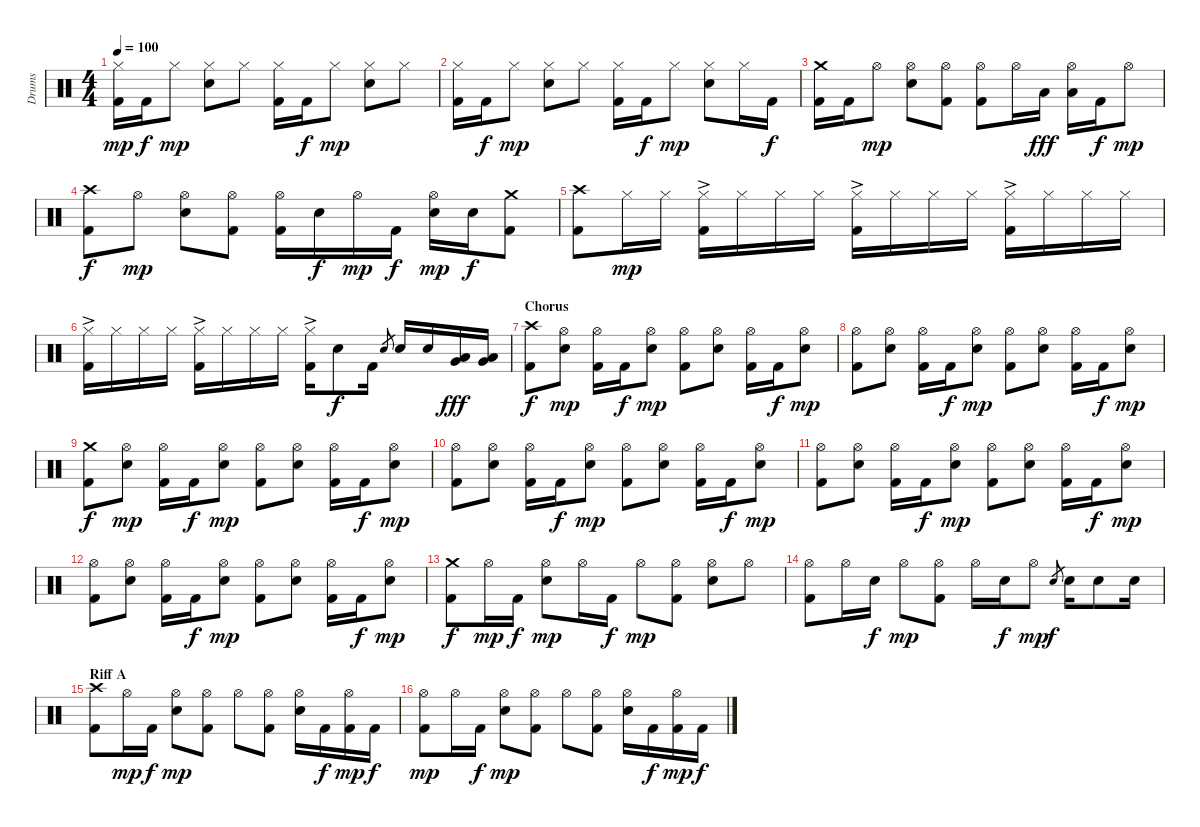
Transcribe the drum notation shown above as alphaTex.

\track ("Drums" "Drums") {instrument percussion}
\staff {score}
\articulation defaults
\ts (4 4)
\tempo 100
\clef neutral
\ks c
("Hi-Hat (closed)" "Kick (hit) 2").16{dy mp} "Kick (hit) 2".16{dy f} "Hi-Hat (closed)".8{dy mp} ("Hi-Hat (closed)" "Snare (hit) 2").8 "Hi-Hat (closed)".8 ("Hi-Hat (closed)" "Kick (hit) 2").16 "Kick (hit) 2".16{dy f} "Hi-Hat (closed)".8{dy mp} ("Hi-Hat (closed)" "Snare (hit) 2").8 "Hi-Hat (closed)".8 |
("Hi-Hat (closed)" "Kick (hit) 2").16 "Kick (hit) 2".16{dy f} "Hi-Hat (closed)".8{dy mp} ("Hi-Hat (closed)" "Snare (hit) 2").8 "Hi-Hat (closed)".8 ("Hi-Hat (closed)" "Kick (hit) 2").16 "Kick (hit) 2".16{dy f} "Hi-Hat (closed)".8{dy mp} ("Hi-Hat (closed)" "Snare (hit) 2").8 "Hi-Hat (closed)".16 "Kick (hit) 2".16{dy f} |
("Crash medium (hit)" "Kick (hit) 2").16 "Kick (hit) 2".16 "Hi-Hat (open)".8{dy mp} ("Hi-Hat (open)" "Snare (hit) 2").8 ("Hi-Hat (open)" "Kick (hit) 2").8 ("Hi-Hat (open)" "Kick (hit) 2").8 "Hi-Hat (open)".16 "Low Tom (hit)".16{dy fff} ("Hi-Hat (open)" "Low Tom (hit)").16 "Kick (hit) 2".16{dy f} "Hi-Hat (open)".8{dy mp} |
("Crash high (hit)" "Kick (hit) 2").8{dy f} "Hi-Hat (open)".8{dy mp} ("Hi-Hat (open)" "Snare (hit) 2").8 ("Hi-Hat (open)" "Kick (hit) 2").8 ("Hi-Hat (open)" "Kick (hit) 2").16 "Snare (hit) 2".16{dy f} "Hi-Hat (open)".16{dy mp} "Kick (hit) 2".16{dy f} ("Hi-Hat (open)" "Snare (hit) 2").16{dy mp} "Snare (hit) 2".16{dy f} ("Crash medium (hit)" "Kick (hit) 2").8 |
("Crash high (hit)" "Kick (hit) 2").8 "Hi-Hat (closed)".16{dy mp} "Hi-Hat (closed)".16 ("Hi-Hat (closed)"{ac} "Kick (hit) 2").16 "Hi-Hat (closed)".16 "Hi-Hat (closed)".16 "Hi-Hat (closed)".16 ("Hi-Hat (closed)"{ac} "Kick (hit) 2").16 "Hi-Hat (closed)".16 "Hi-Hat (closed)".16 "Hi-Hat (closed)".16 ("Hi-Hat (closed)"{ac} "Kick (hit) 2").16 "Hi-Hat (closed)".16 "Hi-Hat (closed)".16 "Hi-Hat (closed)".16 |
("Hi-Hat (closed)"{ac} "Kick (hit) 2").16 "Hi-Hat (closed)".16 "Hi-Hat (closed)".16 "Hi-Hat (closed)".16 ("Hi-Hat (closed)"{ac} "Kick (hit) 2").16 "Hi-Hat (closed)".16 "Hi-Hat (closed)".16 "Hi-Hat (closed)".16 ("Hi-Hat (closed)"{ac} "Kick (hit) 2").16 "Snare (hit) 2".8{dy f} "Kick (hit) 2".16 "Snare (hit) 2".8{gr} "Snare (hit) 2".16 "Snare (hit) 2".16 ("Very Low Tom (hit)" "Low Floor Tom (hit)").16{dy fff} ("Very Low Tom (hit)" "Low Floor Tom (hit)").16 |
\section ("" "Chorus")
("Crash high (hit)" "Kick (hit) 2").8{dy f} ("Hi-Hat (open)" "Snare (hit) 2").8{dy mp} ("Hi-Hat (open)" "Kick (hit) 2").16 "Kick (hit) 2".16{dy f} ("Hi-Hat (open)" "Snare (hit) 2").8{dy mp} ("Hi-Hat (open)" "Kick (hit) 2").8 ("Hi-Hat (open)" "Snare (hit) 2").8 ("Hi-Hat (open)" "Kick (hit) 2").16 "Kick (hit) 2".16{dy f} ("Hi-Hat (open)" "Snare (hit) 2").8{dy mp} |
("Hi-Hat (open)" "Kick (hit) 2").8 ("Hi-Hat (open)" "Snare (hit) 2").8 ("Hi-Hat (open)" "Kick (hit) 2").16 "Kick (hit) 2".16{dy f} ("Hi-Hat (open)" "Snare (hit) 2").8{dy mp} ("Hi-Hat (open)" "Kick (hit) 2").8 ("Hi-Hat (open)" "Snare (hit) 2").8 ("Hi-Hat (open)" "Kick (hit) 2").16 "Kick (hit) 2".16{dy f} ("Hi-Hat (open)" "Snare (hit) 2").8{dy mp} |
("Crash medium (hit)" "Kick (hit) 2").8{dy f} ("Hi-Hat (open)" "Snare (hit) 2").8{dy mp} ("Hi-Hat (open)" "Kick (hit) 2").16 "Kick (hit) 2".16{dy f} ("Hi-Hat (open)" "Snare (hit) 2").8{dy mp} ("Hi-Hat (open)" "Kick (hit) 2").8 ("Hi-Hat (open)" "Snare (hit) 2").8 ("Hi-Hat (open)" "Kick (hit) 2").16 "Kick (hit) 2".16{dy f} ("Hi-Hat (open)" "Snare (hit) 2").8{dy mp} |
("Hi-Hat (open)" "Kick (hit) 2").8 ("Hi-Hat (open)" "Snare (hit) 2").8 ("Hi-Hat (open)" "Kick (hit) 2").16 "Kick (hit) 2".16{dy f} ("Hi-Hat (open)" "Snare (hit) 2").8{dy mp} ("Hi-Hat (open)" "Kick (hit) 2").8 ("Hi-Hat (open)" "Snare (hit) 2").8 ("Hi-Hat (open)" "Kick (hit) 2").16 "Kick (hit) 2".16{dy f} ("Hi-Hat (open)" "Snare (hit) 2").8{dy mp} |
("Hi-Hat (open)" "Kick (hit) 2").8 ("Hi-Hat (open)" "Snare (hit) 2").8 ("Hi-Hat (open)" "Kick (hit) 2").16 "Kick (hit) 2".16{dy f} ("Hi-Hat (open)" "Snare (hit) 2").8{dy mp} ("Hi-Hat (open)" "Kick (hit) 2").8 ("Hi-Hat (open)" "Snare (hit) 2").8 ("Hi-Hat (open)" "Kick (hit) 2").16 "Kick (hit) 2".16{dy f} ("Hi-Hat (open)" "Snare (hit) 2").8{dy mp} |
("Hi-Hat (open)" "Kick (hit) 2").8 ("Hi-Hat (open)" "Snare (hit) 2").8 ("Hi-Hat (open)" "Kick (hit) 2").16 "Kick (hit) 2".16{dy f} ("Hi-Hat (open)" "Snare (hit) 2").8{dy mp} ("Hi-Hat (open)" "Kick (hit) 2").8 ("Hi-Hat (open)" "Snare (hit) 2").8 ("Hi-Hat (open)" "Kick (hit) 2").16 "Kick (hit) 2".16{dy f} ("Hi-Hat (open)" "Snare (hit) 2").8{dy mp} |
("Crash medium (hit)" "Kick (hit) 2").8{dy f} "Hi-Hat (open)".16{dy mp} "Kick (hit) 2".16{dy f} ("Hi-Hat (open)" "Snare (hit) 2").8{dy mp} "Hi-Hat (open)".16 "Kick (hit) 2".16{dy f} "Hi-Hat (open)".8{dy mp} ("Hi-Hat (open)" "Kick (hit) 2").8 ("Hi-Hat (open)" "Snare (hit) 2").8 "Hi-Hat (open)".8 |
("Hi-Hat (open)" "Kick (hit) 2").8 "Hi-Hat (open)".16 "Snare (hit) 2".16{dy f} "Hi-Hat (open)".8{dy mp} ("Hi-Hat (open)" "Kick (hit) 2").8 "Hi-Hat (open)".16 "Snare (hit) 2".16{dy f} "Hi-Hat (open)".8{dy mp} "Snare (hit) 2".8{gr dy f} "Snare (hit) 2".16 "Snare (hit) 2".8 "Snare (hit) 2".16 |
\section ("" "Riff A")
("Crash high (hit)" "Kick (hit) 2").8 "Hi-Hat (open)".16{dy mp} "Kick (hit) 2".16{dy f} ("Hi-Hat (open)" "Snare (hit) 2").8{dy mp} ("Hi-Hat (open)" "Kick (hit) 2").8 "Hi-Hat (open)".8 ("Hi-Hat (open)" "Kick (hit) 2").8 ("Hi-Hat (open)" "Snare (hit) 2").16 "Kick (hit) 2".16{dy f} ("Hi-Hat (open)" "Kick (hit) 2").16{dy mp} "Kick (hit) 2".16{dy f} |
("Hi-Hat (open)" "Kick (hit) 2").8{dy mp} "Hi-Hat (open)".16 "Kick (hit) 2".16{dy f} ("Hi-Hat (open)" "Snare (hit) 2").8{dy mp} ("Hi-Hat (open)" "Kick (hit) 2").8 "Hi-Hat (open)".8 ("Hi-Hat (open)" "Kick (hit) 2").8 ("Hi-Hat (open)" "Snare (hit) 2").16 "Kick (hit) 2".16{dy f} ("Hi-Hat (open)" "Kick (hit) 2").16{dy mp} "Kick (hit) 2".16{dy f}
